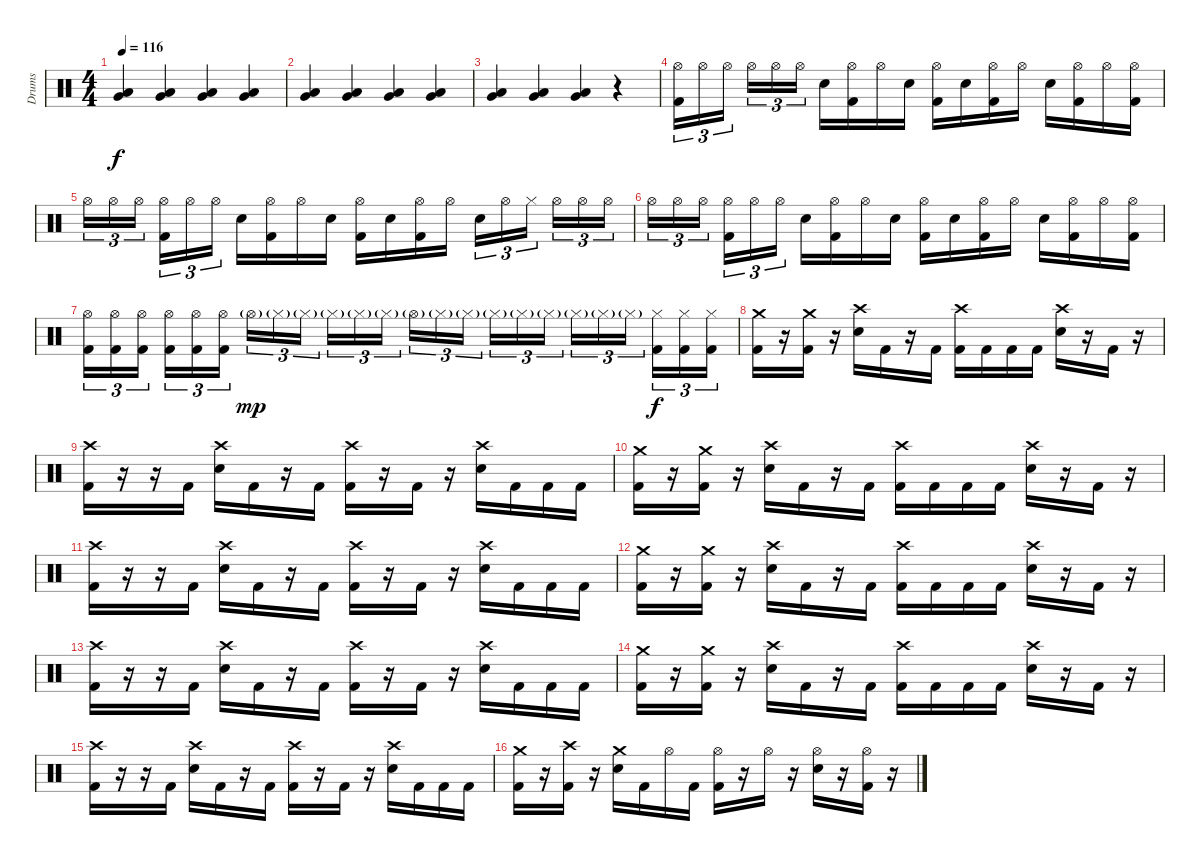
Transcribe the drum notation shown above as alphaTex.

\track ("Drums" "Drums") {instrument percussion}
\staff {score}
\articulation defaults
\ts (4 4)
\tempo 116
\clef neutral
\ks c
("Low Tom (hit)" "Very Low Tom (hit)").4{dy f} ("Low Tom (hit)" "Very Low Tom (hit)").4 ("Low Tom (hit)" "Very Low Tom (hit)").4 ("Low Tom (hit)" "Very Low Tom (hit)").4 |
("Low Tom (hit)" "Very Low Tom (hit)").4 ("Low Tom (hit)" "Very Low Tom (hit)").4 ("Low Tom (hit)" "Very Low Tom (hit)").4 ("Low Tom (hit)" "Very Low Tom (hit)").4 |
("Low Tom (hit)" "Very Low Tom (hit)").4 ("Low Tom (hit)" "Very Low Tom (hit)").4 ("Low Tom (hit)" "Very Low Tom (hit)").4 r.4 |
("Hi-Hat (open)" "Kick (hit) 2").16{tu (3 2)} "Hi-Hat (open)".16{tu (3 2)} "Hi-Hat (open)".16{tu (3 2)} "Hi-Hat (open)".16{tu (3 2)} "Hi-Hat (open)".16{tu (3 2)} "Hi-Hat (open)".16{tu (3 2)} "Snare (hit) 2".16 ("Hi-Hat (open)" "Kick (hit) 2").16 "Hi-Hat (open)".16 "Snare (hit) 2".16 ("Hi-Hat (open)" "Kick (hit) 2").16 "Snare (hit) 2".16 ("Hi-Hat (open)" "Kick (hit) 2").16 "Hi-Hat (open)".16 "Snare (hit) 2".16 ("Hi-Hat (open)" "Kick (hit) 2").16 "Hi-Hat (open)".16 ("Hi-Hat (open)" "Kick (hit) 2").16 |
"Hi-Hat (open)".16{tu (3 2)} "Hi-Hat (open)".16{tu (3 2)} "Hi-Hat (open)".16{tu (3 2)} ("Hi-Hat (open)" "Kick (hit) 2").16{tu (3 2)} "Hi-Hat (open)".16{tu (3 2)} "Hi-Hat (open)".16{tu (3 2)} "Snare (hit) 2".16 ("Hi-Hat (open)" "Kick (hit) 2").16 "Hi-Hat (open)".16 "Snare (hit) 2".16 ("Hi-Hat (open)" "Kick (hit) 2").16 "Snare (hit) 2".16 ("Hi-Hat (open)" "Kick (hit) 2").16 "Hi-Hat (open)".16 "Snare (hit) 2".16{tu (3 2)} "Hi-Hat (open)".16{tu (3 2)} "Hi-Hat (closed)".16{tu (3 2)} "Hi-Hat (open)".16{tu (3 2)} "Hi-Hat (open)".16{tu (3 2)} "Hi-Hat (open)".16{tu (3 2)} |
"Hi-Hat (open)".16{tu (3 2)} "Hi-Hat (open)".16{tu (3 2)} "Hi-Hat (open)".16{tu (3 2)} ("Hi-Hat (open)" "Kick (hit) 2").16{tu (3 2)} "Hi-Hat (open)".16{tu (3 2)} "Hi-Hat (open)".16{tu (3 2)} "Snare (hit) 2".16 ("Hi-Hat (open)" "Kick (hit) 2").16 "Hi-Hat (open)".16 "Snare (hit) 2".16 ("Hi-Hat (open)" "Kick (hit) 2").16 "Snare (hit) 2".16 ("Hi-Hat (open)" "Kick (hit) 2").16 "Hi-Hat (open)".16 "Snare (hit) 2".16 ("Hi-Hat (open)" "Kick (hit) 2").16 "Hi-Hat (open)".16 ("Hi-Hat (open)" "Kick (hit) 2").16 |
("Hi-Hat (open)" "Kick (hit) 2").16{tu (3 2)} ("Hi-Hat (open)" "Kick (hit) 2").16{tu (3 2)} ("Hi-Hat (open)" "Kick (hit) 2").16{tu (3 2)} ("Hi-Hat (open)" "Kick (hit) 2").16{tu (3 2)} ("Hi-Hat (open)" "Kick (hit) 2").16{tu (3 2)} ("Hi-Hat (open)" "Kick (hit) 2").16{tu (3 2)} "Hi-Hat (open)"{g}.16{tu (3 2) dy mp} "Hi-Hat (closed)"{g}.16{tu (3 2)} "Hi-Hat (closed)"{g}.16{tu (3 2)} "Hi-Hat (closed)"{g}.16{tu (3 2)} "Hi-Hat (closed)"{g}.16{tu (3 2)} "Hi-Hat (closed)"{g}.16{tu (3 2)} "Hi-Hat (open)"{g}.16{tu (3 2)} "Hi-Hat (closed)"{g}.16{tu (3 2)} "Hi-Hat (closed)"{g}.16{tu (3 2)} "Hi-Hat (closed)"{g}.16{tu (3 2)} "Hi-Hat (closed)"{g}.16{tu (3 2)} "Hi-Hat (closed)"{g}.16{tu (3 2)} "Hi-Hat (closed)"{g}.16{tu (3 2)} "Hi-Hat (closed)"{g}.16{tu (3 2)} "Hi-Hat (closed)"{g}.16{tu (3 2)} ("Hi-Hat (closed)" "Kick (hit) 2").16{tu (3 2) dy f} ("Hi-Hat (closed)" "Kick (hit) 2").16{tu (3 2)} ("Hi-Hat (closed)" "Kick (hit) 2").16{tu (3 2)} |
("Crash medium (hit)" "Kick (hit) 2").16 r.16 ("Crash medium (hit)" "Kick (hit) 2").16 r.16 ("Crash high (hit)" "Snare (hit) 2").16 "Kick (hit) 2".16 r.16 "Kick (hit) 2".16 ("Crash high (hit)" "Kick (hit) 2").16 "Kick (hit) 2".16 "Kick (hit) 2".16 "Kick (hit) 2".16 ("Crash high (hit)" "Snare (hit) 2").16 r.16 "Kick (hit) 2".16 r.16 |
("Crash high (hit)" "Kick (hit) 2").16 r.16 r.16 "Kick (hit) 2".16 ("Crash high (hit)" "Snare (hit) 2").16 "Kick (hit) 2".16 r.16 "Kick (hit) 2".16 ("Crash high (hit)" "Kick (hit) 2").16 r.16 "Kick (hit) 2".16 r.16 ("Crash high (hit)" "Snare (hit) 2").16 "Kick (hit) 2".16 "Kick (hit) 2".16 "Kick (hit) 2".16 |
("Crash medium (hit)" "Kick (hit) 2").16 r.16 ("Crash medium (hit)" "Kick (hit) 2").16 r.16 ("Crash high (hit)" "Snare (hit) 2").16 "Kick (hit) 2".16 r.16 "Kick (hit) 2".16 ("Crash high (hit)" "Kick (hit) 2").16 "Kick (hit) 2".16 "Kick (hit) 2".16 "Kick (hit) 2".16 ("Crash high (hit)" "Snare (hit) 2").16 r.16 "Kick (hit) 2".16 r.16 |
("Crash high (hit)" "Kick (hit) 2").16 r.16 r.16 "Kick (hit) 2".16 ("Crash high (hit)" "Snare (hit) 2").16 "Kick (hit) 2".16 r.16 "Kick (hit) 2".16 ("Crash high (hit)" "Kick (hit) 2").16 r.16 "Kick (hit) 2".16 r.16 ("Crash high (hit)" "Snare (hit) 2").16 "Kick (hit) 2".16 "Kick (hit) 2".16 "Kick (hit) 2".16 |
("Crash medium (hit)" "Kick (hit) 2").16 r.16 ("Crash medium (hit)" "Kick (hit) 2").16 r.16 ("Crash high (hit)" "Snare (hit) 2").16 "Kick (hit) 2".16 r.16 "Kick (hit) 2".16 ("Crash high (hit)" "Kick (hit) 2").16 "Kick (hit) 2".16 "Kick (hit) 2".16 "Kick (hit) 2".16 ("Crash high (hit)" "Snare (hit) 2").16 r.16 "Kick (hit) 2".16 r.16 |
("Crash high (hit)" "Kick (hit) 2").16 r.16 r.16 "Kick (hit) 2".16 ("Crash high (hit)" "Snare (hit) 2").16 "Kick (hit) 2".16 r.16 "Kick (hit) 2".16 ("Crash high (hit)" "Kick (hit) 2").16 r.16 "Kick (hit) 2".16 r.16 ("Crash high (hit)" "Snare (hit) 2").16 "Kick (hit) 2".16 "Kick (hit) 2".16 "Kick (hit) 2".16 |
("Crash medium (hit)" "Kick (hit) 2").16 r.16 ("Crash medium (hit)" "Kick (hit) 2").16 r.16 ("Crash high (hit)" "Snare (hit) 2").16 "Kick (hit) 2".16 r.16 "Kick (hit) 2".16 ("Crash high (hit)" "Kick (hit) 2").16 "Kick (hit) 2".16 "Kick (hit) 2".16 "Kick (hit) 2".16 ("Crash high (hit)" "Snare (hit) 2").16 r.16 "Kick (hit) 2".16 r.16 |
("Crash high (hit)" "Kick (hit) 2").16 r.16 r.16 "Kick (hit) 2".16 ("Crash high (hit)" "Snare (hit) 2").16 "Kick (hit) 2".16 r.16 "Kick (hit) 2".16 ("Crash high (hit)" "Kick (hit) 2").16 r.16 "Kick (hit) 2".16 r.16 ("Crash high (hit)" "Snare (hit) 2").16 "Kick (hit) 2".16 "Kick (hit) 2".16 "Kick (hit) 2".16 |
("Crash medium (hit)" "Kick (hit) 2").16 r.16 ("Crash high (hit)" "Kick (hit) 2").16 r.16 ("Crash medium (hit)" "Snare (hit) 2").16 "Kick (hit) 2".16 "Hi-Hat (open)".16 "Kick (hit) 2".16 ("Hi-Hat (open)" "Kick (hit) 2").16 r.16 "Hi-Hat (open)".16 r.16 ("Hi-Hat (open)" "Snare (hit) 2").16 r.16 ("Hi-Hat (open)" "Kick (hit) 2").16 r.16
